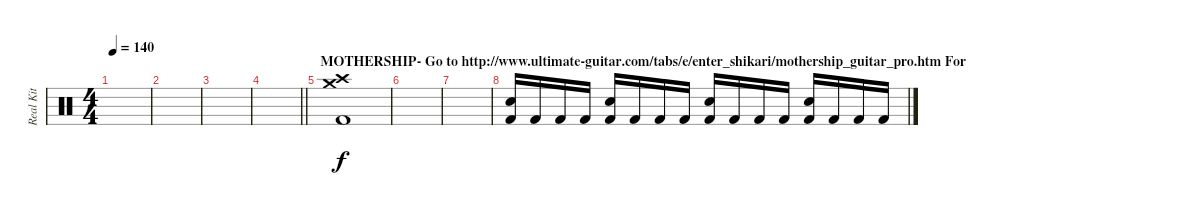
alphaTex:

\track ("Real Kit" "Real Kit") {instrument percussion}
\staff {score}
\articulation defaults
\ts (4 4)
\tempo 140
\clef neutral
\ks c
|
|
|
\barLineRight lightlight
|
\section ("" "MOTHERSHIP- Go to http://www.ultimate-guitar.com/tabs/e/enter_shikari/mothership_guitar_pro.htm For ")
("Crash medium (hit)" "Crash high (hit)" "Kick (hit) 2").1 |
|
|
("Electric Snare (hit)" "Kick (hit) 2").16 "Kick (hit) 2".16 "Kick (hit) 2".16 "Kick (hit) 2".16 ("Electric Snare (hit)" "Kick (hit) 2").16 "Kick (hit) 2".16 "Kick (hit) 2".16 "Kick (hit) 2".16 ("Electric Snare (hit)" "Kick (hit) 2").16 "Kick (hit) 2".16 "Kick (hit) 2".16 "Kick (hit) 2".16 ("Electric Snare (hit)" "Kick (hit) 2").16 "Kick (hit) 2".16 "Kick (hit) 2".16 "Kick (hit) 2".16
